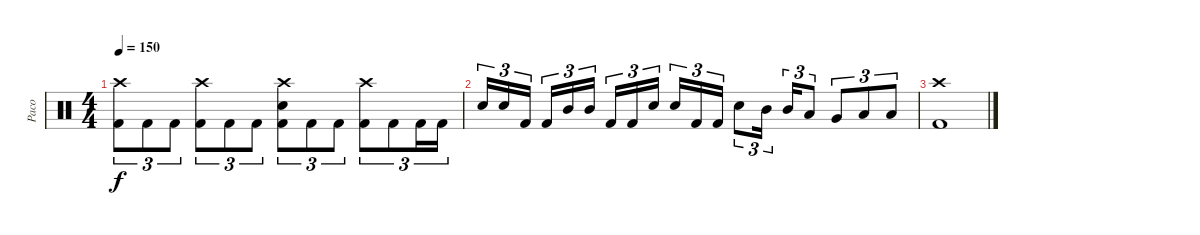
\track ("Paco" "Paco") {instrument percussion}
\staff {score}
\articulation defaults
\ts (4 4)
\tempo 150
\clef neutral
\ks c
("Crash high (hit)" "Kick (hit) 2").8{tu (3 2) dy f} "Kick (hit) 2".8{tu (3 2)} "Kick (hit) 2".8{tu (3 2)} ("Crash high (hit)" "Kick (hit) 2").8{tu (3 2)} "Kick (hit) 2".8{tu (3 2)} "Kick (hit) 2".8{tu (3 2)} ("Crash high (hit)" "Electric Snare (hit)" "Kick (hit) 2").8{tu (3 2)} "Kick (hit) 2".8{tu (3 2)} "Kick (hit) 2".8{tu (3 2)} ("Crash high (hit)" "Kick (hit) 2").8{tu (3 2)} "Kick (hit) 2".8{tu (3 2)} "Kick (hit) 2".16{tu (3 2)} "Kick (hit) 2".16{tu (3 2)} |
"Electric Snare (hit)".16{tu (3 2)} "Electric Snare (hit)".16{tu (3 2)} "Kick (hit) 2".16{tu (3 2) beam splitsecondary} "Kick (hit) 2".16{tu (3 2)} "Mid Tom (hit)".16{tu (3 2)} "Mid Tom (hit)".16{tu (3 2)} "Kick (hit) 2".16{tu (3 2)} "Kick (hit) 2".16{tu (3 2)} "Electric Snare (hit)".16{tu (3 2) beam splitsecondary} "Electric Snare (hit)".16{tu (3 2)} "Kick (hit) 2".16{tu (3 2)} "Kick (hit) 2".16{tu (3 2)} "Electric Snare (hit)".8{tu (3 2)} "Mid Tom (hit)".16{tu (3 2) beam splitsecondary} "Mid Tom (hit)".16{tu (3 2)} "Low Tom (hit)".8{tu (3 2)} "Very Low Tom (hit)".8{tu (3 2)} "Low Floor Tom (hit)".8{tu (3 2)} "Low Floor Tom (hit)".8{tu (3 2)} |
("Crash high (hit)" "Kick (hit) 2").1
